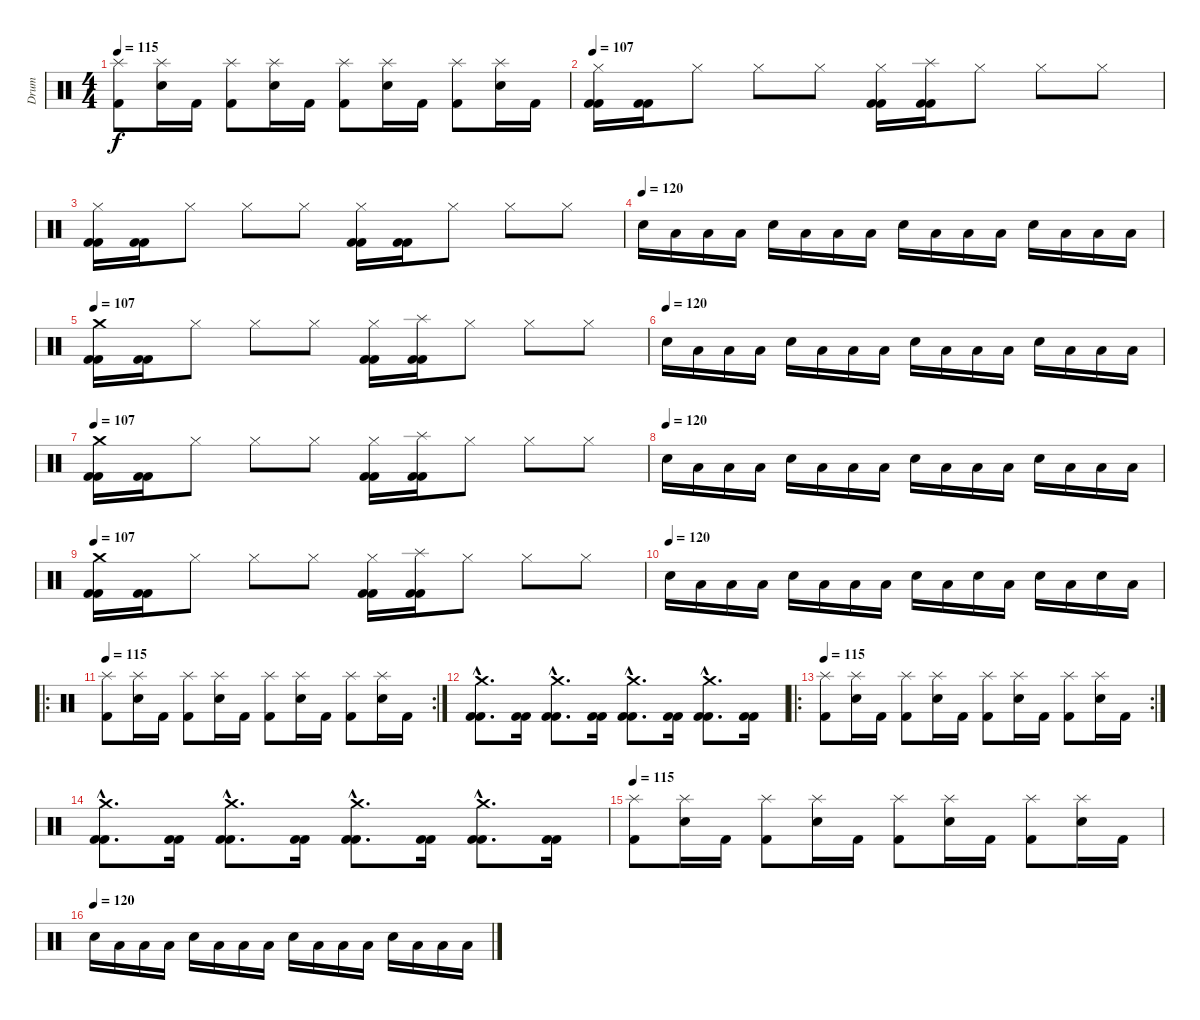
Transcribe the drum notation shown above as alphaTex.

\track ("Drum" "Drum") {instrument percussion}
\staff {score}
\articulation defaults
\ts (4 4)
\tempo 115
\clef neutral
\ks c
("Splash (hit)" "Kick (hit) 2").8{dy f} ("Splash (hit)" "Snare (hit) 2").16 "Kick (hit) 2".16 ("Splash (hit)" "Kick (hit) 2").8 ("Splash (hit)" "Snare (hit) 2").16 "Kick (hit) 2".16 ("Splash (hit)" "Kick (hit) 2").8 ("Splash (hit)" "Snare (hit) 2").16 "Kick (hit) 2".16 ("Splash (hit)" "Kick (hit) 2").8 ("Splash (hit)" "Snare (hit) 2").16 "Kick (hit) 2".16 |
\tempo 107
("Hi-Hat (closed)" "Kick (hit) 2" "Kick (hit) 2").16 ("Kick (hit) 2" "Kick (hit) 2").16 "Hi-Hat (closed)".8 "Hi-Hat (closed)".8 "Hi-Hat (closed)".8 ("Hi-Hat (closed)" "Kick (hit) 2" "Kick (hit) 2").16 ("Splash (hit)" "Kick (hit) 2" "Kick (hit) 2").16 "Hi-Hat (closed)".8 "Hi-Hat (closed)".8 "Hi-Hat (closed)".8 |
("Hi-Hat (closed)" "Kick (hit) 2" "Kick (hit) 2").16 ("Kick (hit) 2" "Kick (hit) 2").16 "Hi-Hat (closed)".8 "Hi-Hat (closed)".8 "Hi-Hat (closed)".8 ("Hi-Hat (closed)" "Kick (hit) 2" "Kick (hit) 2").16 ("Kick (hit) 2" "Kick (hit) 2").16 "Hi-Hat (closed)".8 "Hi-Hat (closed)".8 "Hi-Hat (closed)".8 |
\tempo (120)
"Snare (hit) 2".16 "Low Tom (hit)".16 "Low Tom (hit)".16 "Low Tom (hit)".16 "Snare (hit) 2".16 "Low Tom (hit)".16 "Low Tom (hit)".16 "Low Tom (hit)".16 "Snare (hit) 2".16 "Low Tom (hit)".16 "Low Tom (hit)".16 "Low Tom (hit)".16 "Snare (hit) 2".16 "Low Tom (hit)".16 "Low Tom (hit)".16 "Low Tom (hit)".16 |
\tempo 107
("Crash medium (hit)" "Kick (hit) 2" "Kick (hit) 2").16 ("Kick (hit) 2" "Kick (hit) 2").16 "Hi-Hat (closed)".8 "Hi-Hat (closed)".8 "Hi-Hat (closed)".8 ("Hi-Hat (closed)" "Kick (hit) 2" "Kick (hit) 2").16 ("Splash (hit)" "Kick (hit) 2" "Kick (hit) 2").16 "Hi-Hat (closed)".8 "Hi-Hat (closed)".8 "Hi-Hat (closed)".8 |
\tempo (120)
"Snare (hit) 2".16 "Low Tom (hit)".16 "Low Tom (hit)".16 "Low Tom (hit)".16 "Snare (hit) 2".16 "Low Tom (hit)".16 "Low Tom (hit)".16 "Low Tom (hit)".16 "Snare (hit) 2".16 "Low Tom (hit)".16 "Low Tom (hit)".16 "Low Tom (hit)".16 "Snare (hit) 2".16 "Low Tom (hit)".16 "Low Tom (hit)".16 "Low Tom (hit)".16 |
\tempo 107
("Crash medium (hit)" "Kick (hit) 2" "Kick (hit) 2").16 ("Kick (hit) 2" "Kick (hit) 2").16 "Hi-Hat (closed)".8 "Hi-Hat (closed)".8 "Hi-Hat (closed)".8 ("Hi-Hat (closed)" "Kick (hit) 2" "Kick (hit) 2").16 ("Splash (hit)" "Kick (hit) 2" "Kick (hit) 2").16 "Hi-Hat (closed)".8 "Hi-Hat (closed)".8 "Hi-Hat (closed)".8 |
\tempo (120)
"Snare (hit) 2".16 "Low Tom (hit)".16 "Low Tom (hit)".16 "Low Tom (hit)".16 "Snare (hit) 2".16 "Low Tom (hit)".16 "Low Tom (hit)".16 "Low Tom (hit)".16 "Snare (hit) 2".16 "Low Tom (hit)".16 "Low Tom (hit)".16 "Low Tom (hit)".16 "Snare (hit) 2".16 "Low Tom (hit)".16 "Low Tom (hit)".16 "Low Tom (hit)".16 |
\tempo 107
("Crash medium (hit)" "Kick (hit) 2" "Kick (hit) 2").16 ("Kick (hit) 2" "Kick (hit) 2").16 "Hi-Hat (closed)".8 "Hi-Hat (closed)".8 "Hi-Hat (closed)".8 ("Hi-Hat (closed)" "Kick (hit) 2" "Kick (hit) 2").16 ("Splash (hit)" "Kick (hit) 2" "Kick (hit) 2").16 "Hi-Hat (closed)".8 "Hi-Hat (closed)".8 "Hi-Hat (closed)".8 |
\tempo (120)
"Snare (hit) 2".16 "Low Tom (hit)".16 "Low Tom (hit)".16 "Low Tom (hit)".16 "Snare (hit) 2".16 "Low Tom (hit)".16 "Low Tom (hit)".16 "Low Tom (hit)".16 "Snare (hit) 2".16 "Low Tom (hit)".16 "Snare (hit) 2".16 "Low Tom (hit)".16 "Snare (hit) 2".16 "Low Tom (hit)".16 "Snare (hit) 2".16 "Low Tom (hit)".16 |
\ro
\rc 2
\tempo 115
("Splash (hit)" "Kick (hit) 2").8 ("Splash (hit)" "Snare (hit) 2").16 "Kick (hit) 2".16 ("Splash (hit)" "Kick (hit) 2").8 ("Splash (hit)" "Snare (hit) 2").16 "Kick (hit) 2".16 ("Splash (hit)" "Kick (hit) 2").8 ("Splash (hit)" "Snare (hit) 2").16 "Kick (hit) 2".16 ("Splash (hit)" "Kick (hit) 2").8 ("Splash (hit)" "Snare (hit) 2").16 "Kick (hit) 2".16 |
("Crash medium (hit)"{hac} "Kick (hit) 2"{hac} "Kick (hit) 2"{hac}).8{d} ("Kick (hit) 2" "Kick (hit) 2").16 ("Crash medium (hit)"{hac} "Kick (hit) 2"{hac} "Kick (hit) 2"{hac}).8{d} ("Kick (hit) 2" "Kick (hit) 2").16 ("Crash medium (hit)"{hac} "Kick (hit) 2"{hac} "Kick (hit) 2"{hac}).8{d} ("Kick (hit) 2" "Kick (hit) 2").16 ("Crash medium (hit)"{hac} "Kick (hit) 2"{hac} "Kick (hit) 2"{hac}).8{d} ("Kick (hit) 2" "Kick (hit) 2").16 |
\ro
\rc 2
\tempo 115
("Splash (hit)" "Kick (hit) 2").8 ("Splash (hit)" "Snare (hit) 2").16 "Kick (hit) 2".16 ("Splash (hit)" "Kick (hit) 2").8 ("Splash (hit)" "Snare (hit) 2").16 "Kick (hit) 2".16 ("Splash (hit)" "Kick (hit) 2").8 ("Splash (hit)" "Snare (hit) 2").16 "Kick (hit) 2".16 ("Splash (hit)" "Kick (hit) 2").8 ("Splash (hit)" "Snare (hit) 2").16 "Kick (hit) 2".16 |
("Crash medium (hit)"{hac} "Kick (hit) 2"{hac} "Kick (hit) 2"{hac}).8{d} ("Kick (hit) 2" "Kick (hit) 2").16 ("Crash medium (hit)"{hac} "Kick (hit) 2"{hac} "Kick (hit) 2"{hac}).8{d} ("Kick (hit) 2" "Kick (hit) 2").16 ("Crash medium (hit)"{hac} "Kick (hit) 2"{hac} "Kick (hit) 2"{hac}).8{d} ("Kick (hit) 2" "Kick (hit) 2").16 ("Crash medium (hit)"{hac} "Kick (hit) 2"{hac} "Kick (hit) 2"{hac}).8{d} ("Kick (hit) 2" "Kick (hit) 2").16 |
\tempo 115
("Splash (hit)" "Kick (hit) 2").8 ("Splash (hit)" "Snare (hit) 2").16 "Kick (hit) 2".16 ("Splash (hit)" "Kick (hit) 2").8 ("Splash (hit)" "Snare (hit) 2").16 "Kick (hit) 2".16 ("Splash (hit)" "Kick (hit) 2").8 ("Splash (hit)" "Snare (hit) 2").16 "Kick (hit) 2".16 ("Splash (hit)" "Kick (hit) 2").8 ("Splash (hit)" "Snare (hit) 2").16 "Kick (hit) 2".16 |
\tempo (120)
"Snare (hit) 2".16 "Low Tom (hit)".16 "Low Tom (hit)".16 "Low Tom (hit)".16 "Snare (hit) 2".16 "Low Tom (hit)".16 "Low Tom (hit)".16 "Low Tom (hit)".16 "Snare (hit) 2".16 "Low Tom (hit)".16 "Low Tom (hit)".16 "Low Tom (hit)".16 "Snare (hit) 2".16 "Low Tom (hit)".16 "Low Tom (hit)".16 "Low Tom (hit)".16
